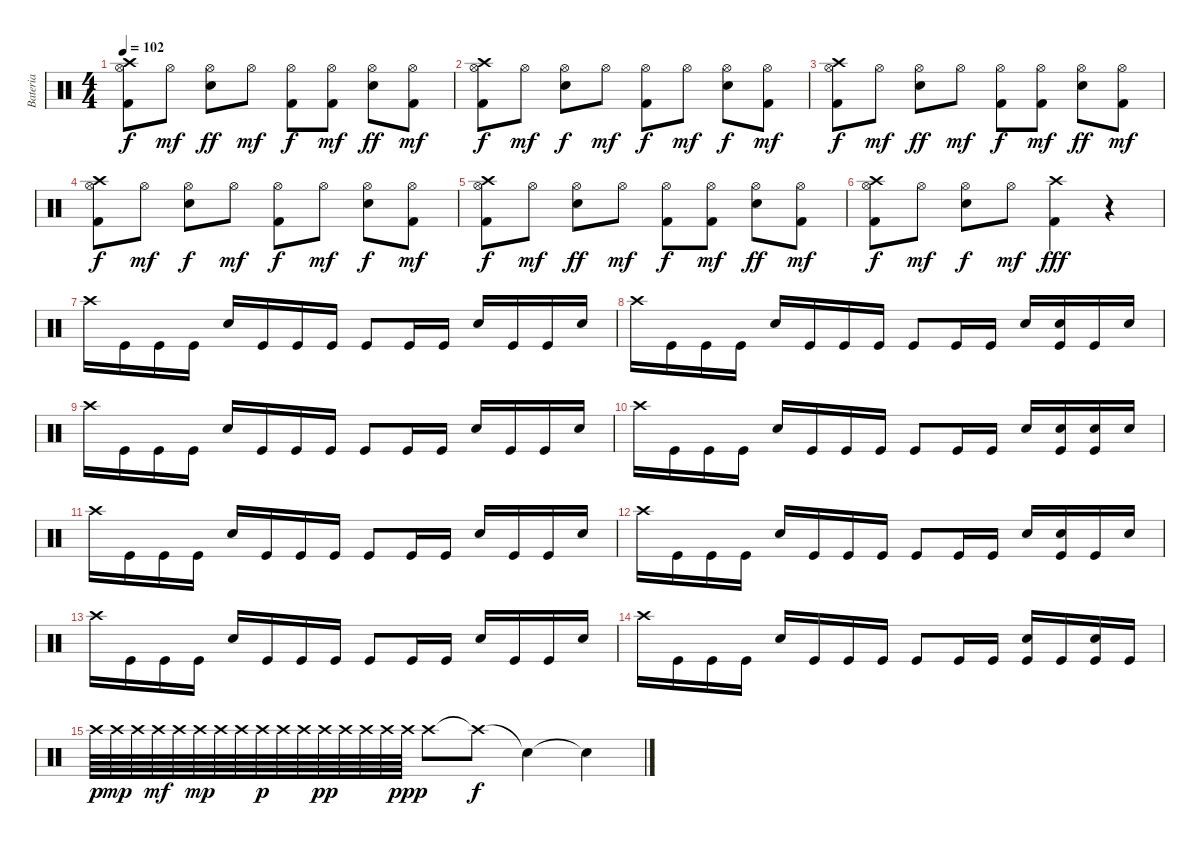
\track ("Bateria" "Bateria") {instrument percussion}
\staff {score}
\articulation defaults
\ts (4 4)
\tempo 102
\clef neutral
\ks c
("Crash high (hit)" "Kick (hit) 2" "Hi-Hat (open)").8{dy f} "Hi-Hat (open)".8{dy mf} ("Electric Snare (hit)" "Hi-Hat (open)").8{dy ff} "Hi-Hat (open)".8{dy mf} ("Kick (hit) 2" "Hi-Hat (open)").8{dy f} ("Kick (hit) 2" "Hi-Hat (open)").8{dy mf} ("Electric Snare (hit)" "Hi-Hat (open)").8{dy ff} ("Kick (hit) 2" "Hi-Hat (open)").8{dy mf} |
("Crash high (hit)" "Kick (hit) 2" "Hi-Hat (open)").8{dy f} "Hi-Hat (open)".8{dy mf} ("Electric Snare (hit)" "Hi-Hat (open)").8{dy f} "Hi-Hat (open)".8{dy mf} ("Kick (hit) 2" "Hi-Hat (open)").8{dy f} "Hi-Hat (open)".8{dy mf} ("Electric Snare (hit)" "Hi-Hat (open)").8{dy f} ("Kick (hit) 2" "Hi-Hat (open)").8{dy mf} |
("Crash high (hit)" "Kick (hit) 2" "Hi-Hat (open)").8{dy f} "Hi-Hat (open)".8{dy mf} ("Electric Snare (hit)" "Hi-Hat (open)").8{dy ff} "Hi-Hat (open)".8{dy mf} ("Kick (hit) 2" "Hi-Hat (open)").8{dy f} ("Kick (hit) 2" "Hi-Hat (open)").8{dy mf} ("Electric Snare (hit)" "Hi-Hat (open)").8{dy ff} ("Kick (hit) 2" "Hi-Hat (open)").8{dy mf} |
("Crash high (hit)" "Kick (hit) 2" "Hi-Hat (open)").8{dy f} "Hi-Hat (open)".8{dy mf} ("Electric Snare (hit)" "Hi-Hat (open)").8{dy f} "Hi-Hat (open)".8{dy mf} ("Kick (hit) 2" "Hi-Hat (open)").8{dy f} "Hi-Hat (open)".8{dy mf} ("Electric Snare (hit)" "Hi-Hat (open)").8{dy f} ("Kick (hit) 2" "Hi-Hat (open)").8{dy mf} |
("Crash high (hit)" "Kick (hit) 2" "Hi-Hat (open)").8{dy f} "Hi-Hat (open)".8{dy mf} ("Electric Snare (hit)" "Hi-Hat (open)").8{dy ff} "Hi-Hat (open)".8{dy mf} ("Kick (hit) 2" "Hi-Hat (open)").8{dy f} ("Kick (hit) 2" "Hi-Hat (open)").8{dy mf} ("Electric Snare (hit)" "Hi-Hat (open)").8{dy ff} ("Kick (hit) 2" "Hi-Hat (open)").8{dy mf} |
("Crash high (hit)" "Kick (hit) 2" "Hi-Hat (open)").8{dy f} "Hi-Hat (open)".8{dy mf} ("Electric Snare (hit)" "Hi-Hat (open)").8{dy f} "Hi-Hat (open)".8{dy mf} ("Crash high (hit)" "Kick (hit) 2").4{dy fff} r.4 |
"Crash high (hit)".16 "Kick (hit)".16 "Kick (hit)".16 "Kick (hit)".16 "Snare (hit) 2".16 "Kick (hit)".16 "Kick (hit)".16 "Kick (hit)".16 "Kick (hit)".8 "Kick (hit)".16 "Kick (hit)".16 "Snare (hit) 2".16 "Kick (hit)".16 "Kick (hit)".16 "Snare (hit) 2".16 |
"Crash high (hit)".16 "Kick (hit)".16 "Kick (hit)".16 "Kick (hit)".16 "Snare (hit) 2".16 "Kick (hit)".16 "Kick (hit)".16 "Kick (hit)".16 "Kick (hit)".8 "Kick (hit)".16 "Kick (hit)".16 "Snare (hit) 2".16 ("Kick (hit)" "Snare (hit) 2").16 "Kick (hit)".16 "Snare (hit) 2".16 |
"Crash high (hit)".16 "Kick (hit)".16 "Kick (hit)".16 "Kick (hit)".16 "Snare (hit) 2".16 "Kick (hit)".16 "Kick (hit)".16 "Kick (hit)".16 "Kick (hit)".8 "Kick (hit)".16 "Kick (hit)".16 "Snare (hit) 2".16 "Kick (hit)".16 "Kick (hit)".16 "Snare (hit) 2".16 |
"Crash high (hit)".16 "Kick (hit)".16 "Kick (hit)".16 "Kick (hit)".16 "Snare (hit) 2".16 "Kick (hit)".16 "Kick (hit)".16 "Kick (hit)".16 "Kick (hit)".8 "Kick (hit)".16 "Kick (hit)".16 "Snare (hit) 2".16 ("Kick (hit)" "Snare (hit) 2").16 ("Kick (hit)" "Snare (hit) 2").16 "Snare (hit) 2".16 |
"Crash high (hit)".16 "Kick (hit)".16 "Kick (hit)".16 "Kick (hit)".16 "Snare (hit) 2".16 "Kick (hit)".16 "Kick (hit)".16 "Kick (hit)".16 "Kick (hit)".8 "Kick (hit)".16 "Kick (hit)".16 "Snare (hit) 2".16 "Kick (hit)".16 "Kick (hit)".16 "Snare (hit) 2".16 |
"Crash high (hit)".16 "Kick (hit)".16 "Kick (hit)".16 "Kick (hit)".16 "Snare (hit) 2".16 "Kick (hit)".16 "Kick (hit)".16 "Kick (hit)".16 "Kick (hit)".8 "Kick (hit)".16 "Kick (hit)".16 "Snare (hit) 2".16 ("Kick (hit)" "Snare (hit) 2").16 "Kick (hit)".16 "Snare (hit) 2".16 |
"Crash high (hit)".16 "Kick (hit)".16 "Kick (hit)".16 "Kick (hit)".16 "Snare (hit) 2".16 "Kick (hit)".16 "Kick (hit)".16 "Kick (hit)".16 "Kick (hit)".8 "Kick (hit)".16 "Kick (hit)".16 "Snare (hit) 2".16 "Kick (hit)".16 "Kick (hit)".16 "Snare (hit) 2".16 |
"Crash high (hit)".16 "Kick (hit)".16 "Kick (hit)".16 "Kick (hit)".16 "Snare (hit) 2".16 "Kick (hit)".16 "Kick (hit)".16 "Kick (hit)".16 "Kick (hit)".8 "Kick (hit)".16 "Kick (hit)".16 ("Snare (hit) 2" "Kick (hit)").16 "Kick (hit)".16 ("Snare (hit) 2" "Kick (hit)").16 "Kick (hit)".16 |
"Crash high (hit)".64{dy p} "Crash high (hit)".64{dy mp} "Crash high (hit)".64 "Crash high (hit)".64{dy mf} "Crash high (hit)".64 "Crash high (hit)".64{dy mp} "Crash high (hit)".64 "Crash high (hit)".64 "Crash high (hit)".64{dy p} "Crash high (hit)".64 "Crash high (hit)".64 "Crash high (hit)".64{dy pp} "Crash high (hit)".64 "Crash high (hit)".64 "Crash high (hit)".64 "Crash high (hit)".64{dy ppp} "Crash high (hit)".8 "Crash high (hit)"{t}.8{dy f} "Snare (hit)"{t}.4 "Snare (hit)"{t}.4
